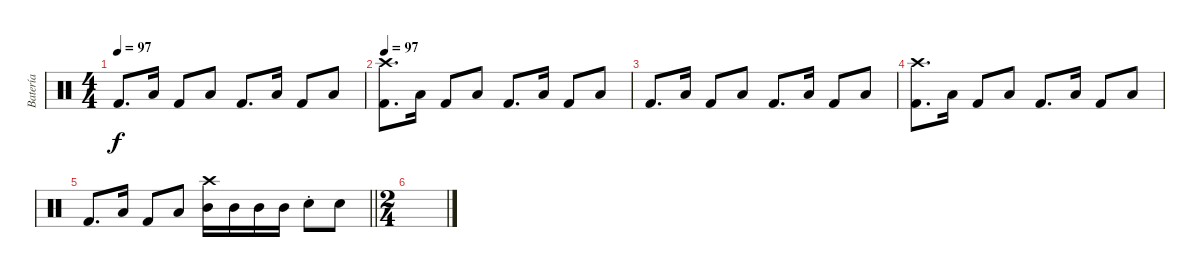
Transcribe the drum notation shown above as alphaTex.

\track ("Batería" "Batería") {instrument percussion}
\staff {score}
\articulation defaults
\ts (4 4)
\tempo 97
\clef neutral
\ks c "Kick (hit) 2".8{d dy f} "Low Tom (hit)".16 "Kick (hit) 2".8 "Low Tom (hit)".8 "Kick (hit) 2".8{d} "Low Tom (hit)".16 "Kick (hit) 2".8 "Low Tom (hit)".8
|
\tempo 97
("Crash high (hit)" "Kick (hit) 2").8{d} "Low Tom (hit)".16 "Kick (hit) 2".8 "Low Tom (hit)".8 "Kick (hit) 2".8{d} "Low Tom (hit)".16 "Kick (hit) 2".8 "Low Tom (hit)".8 |
"Kick (hit) 2".8{d} "Low Tom (hit)".16 "Kick (hit) 2".8 "Low Tom (hit)".8 "Kick (hit) 2".8{d} "Low Tom (hit)".16 "Kick (hit) 2".8 "Low Tom (hit)".8 |
("Kick (hit) 2" "Crash high (hit)").8{d} "Low Tom (hit)".16 "Kick (hit) 2".8 "Low Tom (hit)".8 "Kick (hit) 2".8{d} "Low Tom (hit)".16 "Kick (hit) 2".8 "Low Tom (hit)".8 |
\barLineRight lightlight "Kick (hit) 2".8{d} "Low Tom (hit)".16 "Kick (hit) 2".8 "Low Tom (hit)".8
("Mid Tom (hit)" "Crash high (hit)").16 "Mid Tom (hit)".16 "Mid Tom (hit)".16 "Mid Tom (hit)".16 "Snare (hit) 2"{st}.8 "Snare (hit) 2".8 |
\ts (2 4)
